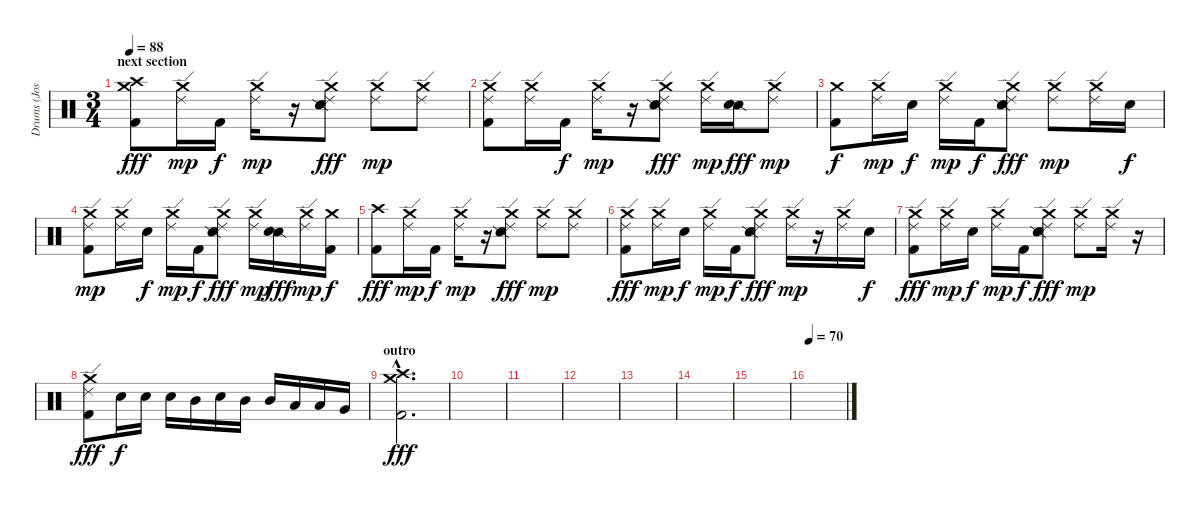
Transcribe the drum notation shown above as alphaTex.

\track ("Drums (Jose)" "Drums (Jos") {instrument percussion}
\staff {score}
\articulation defaults
\ts (3 4)
\section ("" "next section")
\tempo 88
\clef neutral
\ks c
("Crash medium (hit)" "Crash high (hit)" "Kick (hit) 2").8{dy fff} ("Ride (edge) 2" "Crash medium (hit)").16{dy mp} "Kick (hit) 2".16{dy f} ("Ride (edge) 2" "Crash medium (hit)").16{dy mp} r.16 ("Crash medium (hit)" "Ride (edge) 2" "Electric Snare (hit)" "Snare (side stick) 2").8{dy fff} ("Crash medium (hit)" "Ride (edge) 2").8{dy mp} ("Crash medium (hit)" "Ride (edge) 2").8 |
("Crash medium (hit)" "Ride (edge) 2" "Kick (hit) 2").8 ("Ride (edge) 2" "Crash medium (hit)").16 "Kick (hit) 2".16{dy f} ("Ride (edge) 2" "Crash medium (hit)").16{dy mp} r.16 ("Crash medium (hit)" "Ride (edge) 2" "Electric Snare (hit)" "Snare (side stick) 2").8{dy fff} ("Crash medium (hit)" "Ride (edge) 2").16{dy mp} ("Snare (side stick) 2" "Electric Snare (hit)").16{dy fff} ("Crash medium (hit)" "Ride (edge) 2").8{dy mp} |
("Crash medium (hit)" "Kick (hit) 2").8{dy f} ("Ride (edge) 2" "Crash medium (hit)").16{dy mp} "Electric Snare (hit)".16{dy f} ("Ride (edge) 2" "Crash medium (hit)").16{dy mp} "Kick (hit) 2".16{dy f} ("Crash medium (hit)" "Ride (edge) 2" "Electric Snare (hit)" "Snare (side stick) 2").8{dy fff} ("Crash medium (hit)" "Ride (edge) 2").8{dy mp} ("Crash medium (hit)" "Ride (edge) 2").16 "Electric Snare (hit)".16{dy f} |
("Crash medium (hit)" "Ride (edge) 2" "Kick (hit) 2").8{dy mp} ("Ride (edge) 2" "Crash medium (hit)").16 "Electric Snare (hit)".16{dy f} ("Ride (edge) 2" "Crash medium (hit)").16{dy mp} "Kick (hit) 2".16{dy f} ("Crash medium (hit)" "Ride (edge) 2" "Electric Snare (hit)" "Snare (side stick) 2").8{dy fff} ("Crash medium (hit)" "Ride (edge) 2").16{dy mp} ("Snare (side stick) 2" "Electric Snare (hit)").16{dy fff} ("Crash medium (hit)" "Ride (edge) 2").16{dy mp} ("Crash medium (hit)" "Kick (hit) 2").16{dy f} |
("Crash high (hit)" "Kick (hit) 2").8{dy fff} ("Ride (edge) 2" "Crash medium (hit)").16{dy mp} "Kick (hit) 2".16{dy f} ("Ride (edge) 2" "Crash medium (hit)").16{dy mp} r.16 ("Crash medium (hit)" "Ride (edge) 2" "Electric Snare (hit)" "Snare (side stick) 2").8{dy fff} ("Crash medium (hit)" "Ride (edge) 2").8{dy mp} ("Crash medium (hit)" "Ride (edge) 2").8 |
("Crash medium (hit)" "Ride (edge) 2" "Kick (hit) 2").8{dy fff} ("Ride (edge) 2" "Crash medium (hit)").16{dy mp} "Electric Snare (hit)".16{dy f} ("Ride (edge) 2" "Crash medium (hit)").16{dy mp} "Kick (hit) 2".16{dy f} ("Crash medium (hit)" "Ride (edge) 2" "Electric Snare (hit)" "Snare (side stick) 2").8{dy fff} ("Crash medium (hit)" "Ride (edge) 2").16{dy mp} r.16 ("Crash medium (hit)" "Ride (edge) 2").16 "Electric Snare (hit)".16{dy f} |
("Crash medium (hit)" "Ride (edge) 2" "Kick (hit) 2").8{dy fff} ("Ride (edge) 2" "Crash medium (hit)").16{dy mp} "Electric Snare (hit)".16{dy f} ("Ride (edge) 2" "Crash medium (hit)").16{dy mp} "Kick (hit) 2".16{dy f} ("Crash medium (hit)" "Ride (edge) 2" "Electric Snare (hit)" "Snare (side stick) 2").8{dy fff} ("Crash medium (hit)" "Ride (edge) 2").8{dy mp} ("Crash medium (hit)" "Ride (edge) 2").16 r.16 |
("Crash medium (hit)" "Ride (edge) 2" "Kick (hit) 2").8{dy fff} "Electric Snare (hit)".16{dy f} "Electric Snare (hit)".16 "Electric Snare (hit)".16 "Mid Tom (hit)".16 "Electric Snare (hit)".16 "Mid Tom (hit)".16 "Mid Tom (hit)".16 "Low Tom (hit)".16 "Low Tom (hit)".16 "Very Low Tom (hit)".16 |
\section ("" "outro")
("Crash high (hit)"{hac} "Crash medium (hit)"{hac} "Kick (hit) 2"{hac}).2{d dy fff} |
|
|
|
|
|
|
\tempo 70
